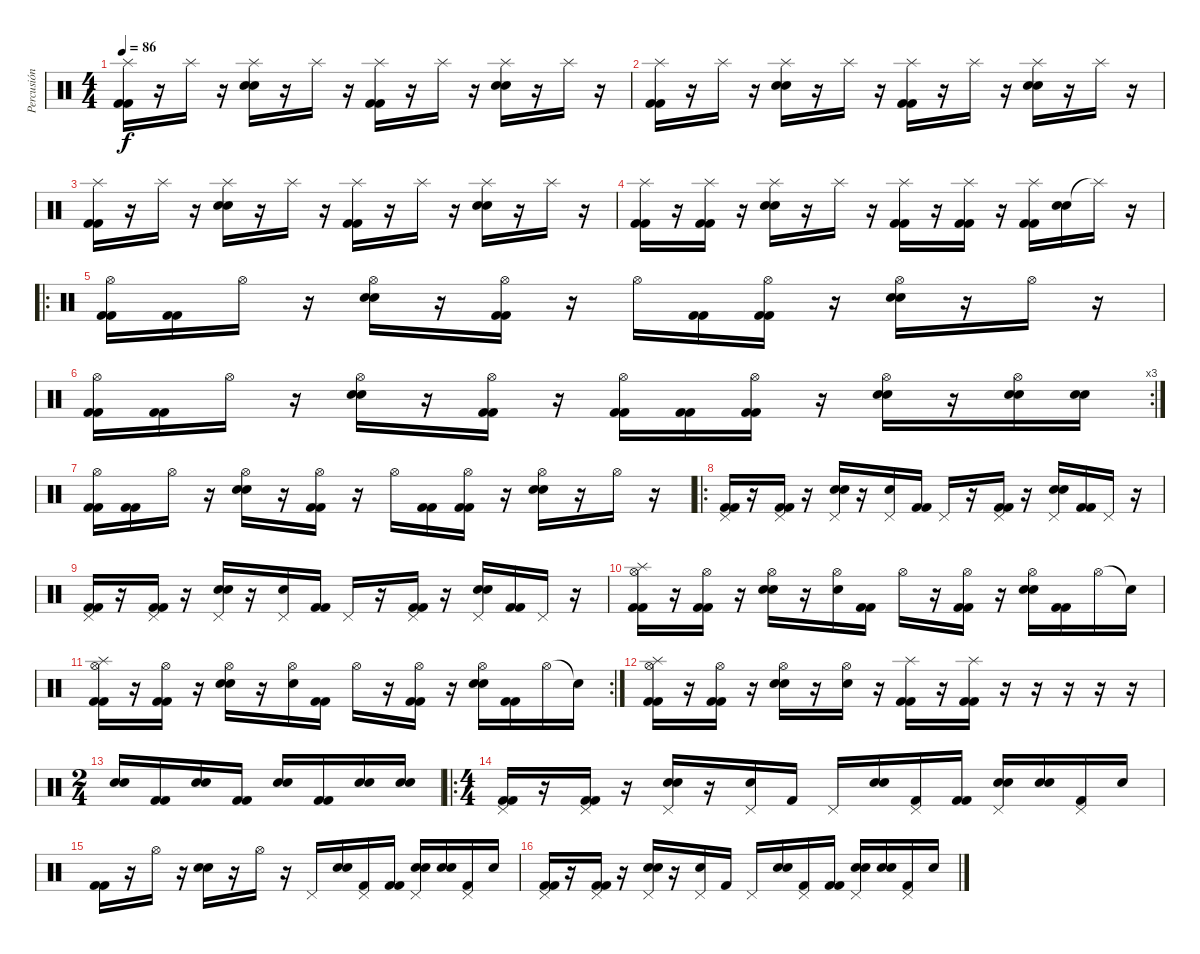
\track ("Percusión" "Percusión") {instrument percussion}
\staff {score}
\articulation defaults
\ts (4 4)
\tempo 86
\clef neutral
\ks c
("Splash (hit)" "Kick (hit) 2" "Kick (hit) 2").16{dy f} r.16 "Splash (hit)".16 r.16 ("Splash (hit)" "Electric Snare (hit)" "Electric Snare (hit)").16 r.16 "Splash (hit)".16 r.16 ("Splash (hit)" "Kick (hit) 2" "Kick (hit) 2").16 r.16 "Splash (hit)".16 r.16 ("Splash (hit)" "Electric Snare (hit)" "Electric Snare (hit)").16 r.16 "Splash (hit)".16 r.16 |
("Splash (hit)" "Kick (hit) 2" "Kick (hit) 2").16 r.16 "Splash (hit)".16 r.16 ("Splash (hit)" "Electric Snare (hit)" "Electric Snare (hit)").16 r.16 "Splash (hit)".16 r.16 ("Splash (hit)" "Kick (hit) 2" "Kick (hit) 2").16 r.16 "Splash (hit)".16 r.16 ("Splash (hit)" "Electric Snare (hit)" "Electric Snare (hit)").16 r.16 "Splash (hit)".16 r.16 |
("Splash (hit)" "Kick (hit) 2" "Kick (hit) 2").16 r.16 "Splash (hit)".16 r.16 ("Splash (hit)" "Electric Snare (hit)" "Electric Snare (hit)").16 r.16 "Splash (hit)".16 r.16 ("Splash (hit)" "Kick (hit) 2" "Kick (hit) 2").16 r.16 "Splash (hit)".16 r.16 ("Splash (hit)" "Electric Snare (hit)" "Electric Snare (hit)").16 r.16 "Splash (hit)".16 r.16 |
("Splash (hit)" "Kick (hit) 2" "Kick (hit) 2").16 r.16 ("Splash (hit)" "Kick (hit) 2" "Kick (hit) 2").16 r.16 ("Splash (hit)" "Electric Snare (hit)" "Electric Snare (hit)").16 r.16 "Splash (hit)".16 r.16 ("Splash (hit)" "Kick (hit) 2" "Kick (hit) 2").16 r.16 ("Splash (hit)" "Kick (hit) 2" "Kick (hit) 2").16 r.16 ("Splash (hit)" "Kick (hit) 2" "Kick (hit) 2").16 ("Electric Snare (hit)" "Electric Snare (hit)").16 "Splash (hit)"{t}.16 r.16 |
\ro
("Hi-Hat (open)" "Kick (hit) 2" "Kick (hit) 2").16 ("Kick (hit) 2" "Kick (hit) 2").16 "Hi-Hat (open)".16 r.16 ("Hi-Hat (open)" "Electric Snare (hit)" "Electric Snare (hit)").16 r.16 ("Hi-Hat (open)" "Kick (hit) 2" "Kick (hit) 2").16 r.16 "Hi-Hat (open)".16 ("Kick (hit) 2" "Kick (hit) 2").16 ("Hi-Hat (open)" "Kick (hit) 2" "Kick (hit) 2").16 r.16 ("Hi-Hat (open)" "Electric Snare (hit)" "Electric Snare (hit)").16 r.16 "Hi-Hat (open)".16 r.16 |
\rc 3
("Hi-Hat (open)" "Kick (hit) 2" "Kick (hit) 2").16 ("Kick (hit) 2" "Kick (hit) 2").16 "Hi-Hat (open)".16 r.16 ("Hi-Hat (open)" "Electric Snare (hit)" "Electric Snare (hit)").16 r.16 ("Hi-Hat (open)" "Kick (hit) 2" "Kick (hit) 2").16 r.16 ("Hi-Hat (open)" "Kick (hit) 2" "Kick (hit) 2").16 ("Kick (hit) 2" "Kick (hit) 2").16 ("Hi-Hat (open)" "Kick (hit) 2" "Kick (hit) 2").16 r.16 ("Hi-Hat (open)" "Electric Snare (hit)" "Electric Snare (hit)").16 r.16 ("Hi-Hat (open)" "Electric Snare (hit)" "Electric Snare (hit)").16 ("Electric Snare (hit)" "Electric Snare (hit)").16 |
("Hi-Hat (open)" "Kick (hit) 2" "Kick (hit) 2").16 ("Kick (hit) 2" "Kick (hit) 2").16 "Hi-Hat (open)".16 r.16 ("Hi-Hat (open)" "Electric Snare (hit)" "Electric Snare (hit)").16 r.16 ("Hi-Hat (open)" "Kick (hit) 2" "Kick (hit) 2").16 r.16 "Hi-Hat (open)".16 ("Kick (hit) 2" "Kick (hit) 2").16 ("Hi-Hat (open)" "Kick (hit) 2" "Kick (hit) 2").16 r.16 ("Hi-Hat (open)" "Electric Snare (hit)" "Electric Snare (hit)").16 r.16 "Hi-Hat (open)".16 r.16 |
\ro
("Pedal Hi-Hat (hit)" "Kick (hit) 2" "Kick (hit) 2").16 r.16 ("Pedal Hi-Hat (hit)" "Kick (hit) 2" "Kick (hit) 2").16 r.16 ("Pedal Hi-Hat (hit)" "Electric Snare (hit)" "Electric Snare (hit)").16 r.16 ("Pedal Hi-Hat (hit)" "Electric Snare (hit)").16 ("Kick (hit) 2" "Kick (hit) 2").16 "Pedal Hi-Hat (hit)".16 r.16 ("Pedal Hi-Hat (hit)" "Kick (hit) 2" "Kick (hit) 2").16 r.16 ("Pedal Hi-Hat (hit)" "Electric Snare (hit)" "Electric Snare (hit)").16 ("Kick (hit) 2" "Kick (hit) 2").16 "Pedal Hi-Hat (hit)".16 r.16 |
("Pedal Hi-Hat (hit)" "Kick (hit) 2" "Kick (hit) 2").16 r.16 ("Pedal Hi-Hat (hit)" "Kick (hit) 2" "Kick (hit) 2").16 r.16 ("Pedal Hi-Hat (hit)" "Electric Snare (hit)" "Electric Snare (hit)").16 r.16 ("Pedal Hi-Hat (hit)" "Electric Snare (hit)").16 ("Kick (hit) 2" "Kick (hit) 2").16 "Pedal Hi-Hat (hit)".16 r.16 ("Pedal Hi-Hat (hit)" "Kick (hit) 2" "Kick (hit) 2").16 r.16 ("Pedal Hi-Hat (hit)" "Electric Snare (hit)" "Electric Snare (hit)").16 ("Kick (hit) 2" "Kick (hit) 2").16 "Pedal Hi-Hat (hit)".16 r.16 |
("Hi-Hat (open)" "Splash (hit)" "Kick (hit) 2" "Kick (hit) 2").16 r.16 ("Hi-Hat (open)" "Kick (hit) 2" "Kick (hit) 2").16 r.16 ("Hi-Hat (open)" "Electric Snare (hit)" "Electric Snare (hit)").16 r.16 ("Hi-Hat (open)" "Electric Snare (hit)").16 ("Kick (hit) 2" "Kick (hit) 2").16 "Hi-Hat (open)".16 r.16 ("Hi-Hat (open)" "Kick (hit) 2" "Kick (hit) 2").16 r.16 ("Hi-Hat (open)" "Electric Snare (hit)" "Electric Snare (hit)").16 ("Kick (hit) 2" "Kick (hit) 2").16 "Hi-Hat (open)".16 "Snare (hit)"{t}.16 |
\rc 2
("Hi-Hat (open)" "Splash (hit)" "Kick (hit) 2" "Kick (hit) 2").16 r.16 ("Hi-Hat (open)" "Kick (hit) 2" "Kick (hit) 2").16 r.16 ("Hi-Hat (open)" "Electric Snare (hit)" "Electric Snare (hit)").16 r.16 ("Hi-Hat (open)" "Electric Snare (hit)").16 ("Kick (hit) 2" "Kick (hit) 2").16 "Hi-Hat (open)".16 r.16 ("Hi-Hat (open)" "Kick (hit) 2" "Kick (hit) 2").16 r.16 ("Hi-Hat (open)" "Electric Snare (hit)" "Electric Snare (hit)").16 ("Kick (hit) 2" "Kick (hit) 2").16 "Hi-Hat (open)".16 "Snare (hit)"{t}.16 |
("Hi-Hat (open)" "Splash (hit)" "Kick (hit) 2" "Kick (hit) 2").16 r.16 ("Hi-Hat (open)" "Kick (hit) 2" "Kick (hit) 2").16 r.16 ("Hi-Hat (open)" "Electric Snare (hit)" "Electric Snare (hit)").16 r.16 ("Hi-Hat (open)" "Electric Snare (hit)").16 r.16 ("Splash (hit)" "Kick (hit) 2" "Kick (hit) 2").16 r.16 ("Splash (hit)" "Kick (hit) 2" "Kick (hit) 2").16 r.16 r.16 r.16 r.16 r.16 |
\ts (2 4)
("Electric Snare (hit)" "Electric Snare (hit)").16 ("Kick (hit) 2" "Kick (hit) 2").16 ("Electric Snare (hit)" "Electric Snare (hit)").16 ("Kick (hit) 2" "Kick (hit) 2").16 ("Electric Snare (hit)" "Electric Snare (hit)").16 ("Kick (hit) 2" "Kick (hit) 2").16 ("Electric Snare (hit)" "Electric Snare (hit)").16 ("Electric Snare (hit)" "Electric Snare (hit)").16 |
\ro
\ts (4 4)
("Pedal Hi-Hat (hit)" "Kick (hit) 2" "Kick (hit) 2").16 r.16 ("Pedal Hi-Hat (hit)" "Kick (hit) 2" "Kick (hit) 2").16 r.16 ("Pedal Hi-Hat (hit)" "Electric Snare (hit)" "Electric Snare (hit)").16 r.16 ("Pedal Hi-Hat (hit)" "Electric Snare (hit)").16 "Kick (hit) 2".16 "Pedal Hi-Hat (hit)".16 ("Electric Snare (hit)" "Electric Snare (hit)").16 ("Pedal Hi-Hat (hit)" "Kick (hit) 2").16 ("Kick (hit) 2" "Kick (hit) 2").16 ("Pedal Hi-Hat (hit)" "Electric Snare (hit)" "Electric Snare (hit)").16 ("Electric Snare (hit)" "Electric Snare (hit)").16 ("Pedal Hi-Hat (hit)" "Kick (hit) 2").16 "Electric Snare (hit)".16 |
("Kick (hit) 2" "Kick (hit) 2").16 r.16 "Hi-Hat (open)".16 r.16 ("Electric Snare (hit)" "Electric Snare (hit)").16 r.16 "Hi-Hat (open)".16 r.16 "Pedal Hi-Hat (hit)".16 ("Electric Snare (hit)" "Electric Snare (hit)").16 ("Pedal Hi-Hat (hit)" "Kick (hit) 2").16 ("Kick (hit) 2" "Kick (hit) 2").16 ("Pedal Hi-Hat (hit)" "Electric Snare (hit)" "Electric Snare (hit)").16 ("Electric Snare (hit)" "Electric Snare (hit)").16 ("Pedal Hi-Hat (hit)" "Kick (hit) 2").16 "Electric Snare (hit)".16 |
("Pedal Hi-Hat (hit)" "Kick (hit) 2" "Kick (hit) 2").16 r.16 ("Pedal Hi-Hat (hit)" "Kick (hit) 2" "Kick (hit) 2").16 r.16 ("Pedal Hi-Hat (hit)" "Electric Snare (hit)" "Electric Snare (hit)").16 r.16 ("Pedal Hi-Hat (hit)" "Electric Snare (hit)").16 "Kick (hit) 2".16 "Pedal Hi-Hat (hit)".16 ("Electric Snare (hit)" "Electric Snare (hit)").16 ("Pedal Hi-Hat (hit)" "Kick (hit) 2").16 ("Kick (hit) 2" "Kick (hit) 2").16 ("Pedal Hi-Hat (hit)" "Electric Snare (hit)" "Electric Snare (hit)").16 ("Electric Snare (hit)" "Electric Snare (hit)").16 ("Pedal Hi-Hat (hit)" "Kick (hit) 2").16 "Electric Snare (hit)".16
